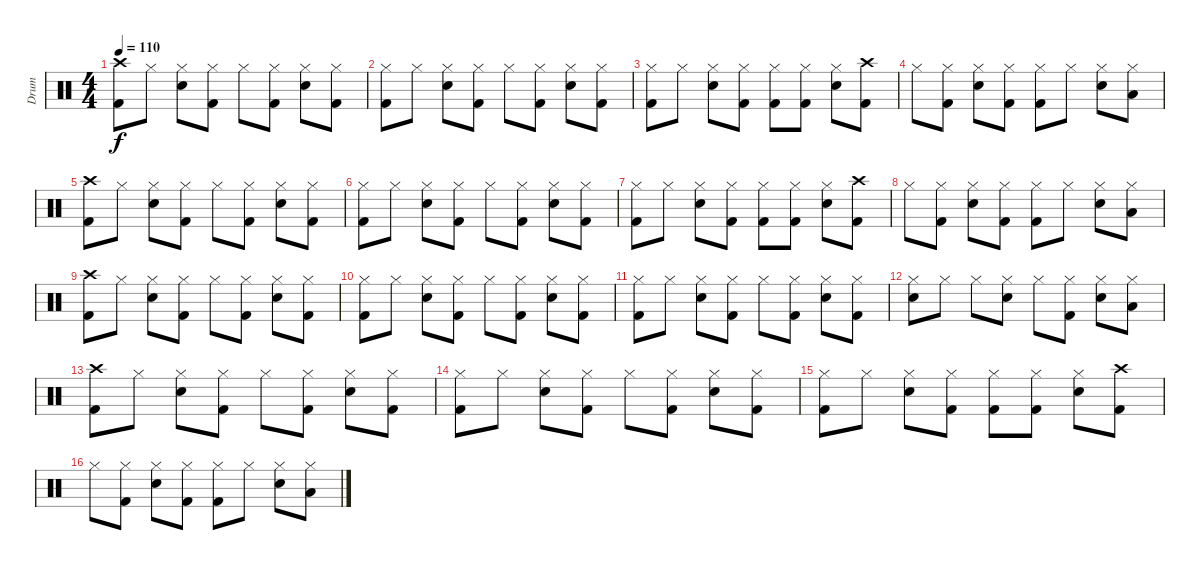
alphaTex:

\track ("Drum" "Drum") {instrument percussion}
\staff {score}
\articulation defaults
\ts (4 4)
\tempo 110
\clef neutral
\ks c
("Crash high (hit)" "Kick (hit) 2").8{dy f} "Hi-Hat (closed)".8 ("Hi-Hat (closed)" "Electric Snare (hit)").8 ("Hi-Hat (closed)" "Kick (hit) 2").8 "Hi-Hat (closed)".8 ("Hi-Hat (closed)" "Kick (hit) 2").8 ("Hi-Hat (closed)" "Electric Snare (hit)").8 ("Hi-Hat (closed)" "Kick (hit) 2").8 |
("Hi-Hat (closed)" "Kick (hit) 2").8 "Hi-Hat (closed)".8 ("Hi-Hat (closed)" "Electric Snare (hit)").8 ("Hi-Hat (closed)" "Kick (hit) 2").8 "Hi-Hat (closed)".8 ("Hi-Hat (closed)" "Kick (hit) 2").8 ("Hi-Hat (closed)" "Electric Snare (hit)").8 ("Hi-Hat (closed)" "Kick (hit) 2").8 |
("Hi-Hat (closed)" "Kick (hit) 2").8 "Hi-Hat (closed)".8 ("Hi-Hat (closed)" "Electric Snare (hit)").8 ("Hi-Hat (closed)" "Kick (hit) 2").8 ("Hi-Hat (closed)" "Kick (hit) 2").8 ("Hi-Hat (closed)" "Kick (hit) 2").8 ("Hi-Hat (closed)" "Electric Snare (hit)").8 ("Crash high (hit)" "Kick (hit) 2").8 |
"Hi-Hat (closed)".8 ("Hi-Hat (closed)" "Kick (hit) 2").8 ("Hi-Hat (closed)" "Electric Snare (hit)").8 ("Hi-Hat (closed)" "Kick (hit) 2").8 ("Hi-Hat (closed)" "Kick (hit) 2").8 "Hi-Hat (closed)".8 ("Hi-Hat (closed)" "Electric Snare (hit)").8 ("Hi-Hat (closed)" "Low Tom (hit)").8 |
("Crash high (hit)" "Kick (hit) 2").8 "Hi-Hat (closed)".8 ("Hi-Hat (closed)" "Electric Snare (hit)").8 ("Hi-Hat (closed)" "Kick (hit) 2").8 "Hi-Hat (closed)".8 ("Hi-Hat (closed)" "Kick (hit) 2").8 ("Hi-Hat (closed)" "Electric Snare (hit)").8 ("Hi-Hat (closed)" "Kick (hit) 2").8 |
("Hi-Hat (closed)" "Kick (hit) 2").8 "Hi-Hat (closed)".8 ("Hi-Hat (closed)" "Electric Snare (hit)").8 ("Hi-Hat (closed)" "Kick (hit) 2").8 "Hi-Hat (closed)".8 ("Hi-Hat (closed)" "Kick (hit) 2").8 ("Hi-Hat (closed)" "Electric Snare (hit)").8 ("Hi-Hat (closed)" "Kick (hit) 2").8 |
("Hi-Hat (closed)" "Kick (hit) 2").8 "Hi-Hat (closed)".8 ("Hi-Hat (closed)" "Electric Snare (hit)").8 ("Hi-Hat (closed)" "Kick (hit) 2").8 ("Hi-Hat (closed)" "Kick (hit) 2").8 ("Hi-Hat (closed)" "Kick (hit) 2").8 ("Hi-Hat (closed)" "Electric Snare (hit)").8 ("Crash high (hit)" "Kick (hit) 2").8 |
"Hi-Hat (closed)".8 ("Hi-Hat (closed)" "Kick (hit) 2").8 ("Hi-Hat (closed)" "Electric Snare (hit)").8 ("Hi-Hat (closed)" "Kick (hit) 2").8 ("Hi-Hat (closed)" "Kick (hit) 2").8 "Hi-Hat (closed)".8 ("Hi-Hat (closed)" "Electric Snare (hit)").8 ("Hi-Hat (closed)" "Low Tom (hit)").8 |
("Crash high (hit)" "Kick (hit) 2").8 "Hi-Hat (closed)".8 ("Hi-Hat (closed)" "Electric Snare (hit)").8 ("Hi-Hat (closed)" "Kick (hit) 2").8 "Hi-Hat (closed)".8 ("Hi-Hat (closed)" "Kick (hit) 2").8 ("Hi-Hat (closed)" "Electric Snare (hit)").8 ("Hi-Hat (closed)" "Kick (hit) 2").8 |
("Hi-Hat (closed)" "Kick (hit) 2").8 "Hi-Hat (closed)".8 ("Hi-Hat (closed)" "Electric Snare (hit)").8 ("Hi-Hat (closed)" "Kick (hit) 2").8 "Hi-Hat (closed)".8 ("Hi-Hat (closed)" "Kick (hit) 2").8 ("Hi-Hat (closed)" "Electric Snare (hit)").8 ("Hi-Hat (closed)" "Kick (hit) 2").8 |
("Hi-Hat (closed)" "Kick (hit) 2").8 "Hi-Hat (closed)".8 ("Hi-Hat (closed)" "Electric Snare (hit)").8 ("Hi-Hat (closed)" "Kick (hit) 2").8 "Hi-Hat (closed)".8 ("Hi-Hat (closed)" "Kick (hit) 2").8 ("Hi-Hat (closed)" "Electric Snare (hit)").8 ("Hi-Hat (closed)" "Kick (hit) 2").8 |
("Hi-Hat (closed)" "Electric Snare (hit)").8 "Hi-Hat (closed)".8 "Hi-Hat (closed)".8 ("Hi-Hat (closed)" "Electric Snare (hit)").8 "Hi-Hat (closed)".8 ("Hi-Hat (closed)" "Kick (hit) 2").8 ("Hi-Hat (closed)" "Electric Snare (hit)").8 ("Hi-Hat (closed)" "Low Tom (hit)").8 |
("Crash high (hit)" "Kick (hit) 2").8 "Hi-Hat (closed)".8 ("Hi-Hat (closed)" "Electric Snare (hit)").8 ("Hi-Hat (closed)" "Kick (hit) 2").8 "Hi-Hat (closed)".8 ("Hi-Hat (closed)" "Kick (hit) 2").8 ("Hi-Hat (closed)" "Electric Snare (hit)").8 ("Hi-Hat (closed)" "Kick (hit) 2").8 |
("Hi-Hat (closed)" "Kick (hit) 2").8 "Hi-Hat (closed)".8 ("Hi-Hat (closed)" "Electric Snare (hit)").8 ("Hi-Hat (closed)" "Kick (hit) 2").8 "Hi-Hat (closed)".8 ("Hi-Hat (closed)" "Kick (hit) 2").8 ("Hi-Hat (closed)" "Electric Snare (hit)").8 ("Hi-Hat (closed)" "Kick (hit) 2").8 |
("Hi-Hat (closed)" "Kick (hit) 2").8 "Hi-Hat (closed)".8 ("Hi-Hat (closed)" "Electric Snare (hit)").8 ("Hi-Hat (closed)" "Kick (hit) 2").8 ("Hi-Hat (closed)" "Kick (hit) 2").8 ("Hi-Hat (closed)" "Kick (hit) 2").8 ("Hi-Hat (closed)" "Electric Snare (hit)").8 ("Crash high (hit)" "Kick (hit) 2").8 |
"Hi-Hat (closed)".8 ("Hi-Hat (closed)" "Kick (hit) 2").8 ("Hi-Hat (closed)" "Electric Snare (hit)").8 ("Hi-Hat (closed)" "Kick (hit) 2").8 ("Hi-Hat (closed)" "Kick (hit) 2").8 "Hi-Hat (closed)".8 ("Hi-Hat (closed)" "Electric Snare (hit)").8 ("Hi-Hat (closed)" "Low Tom (hit)").8
